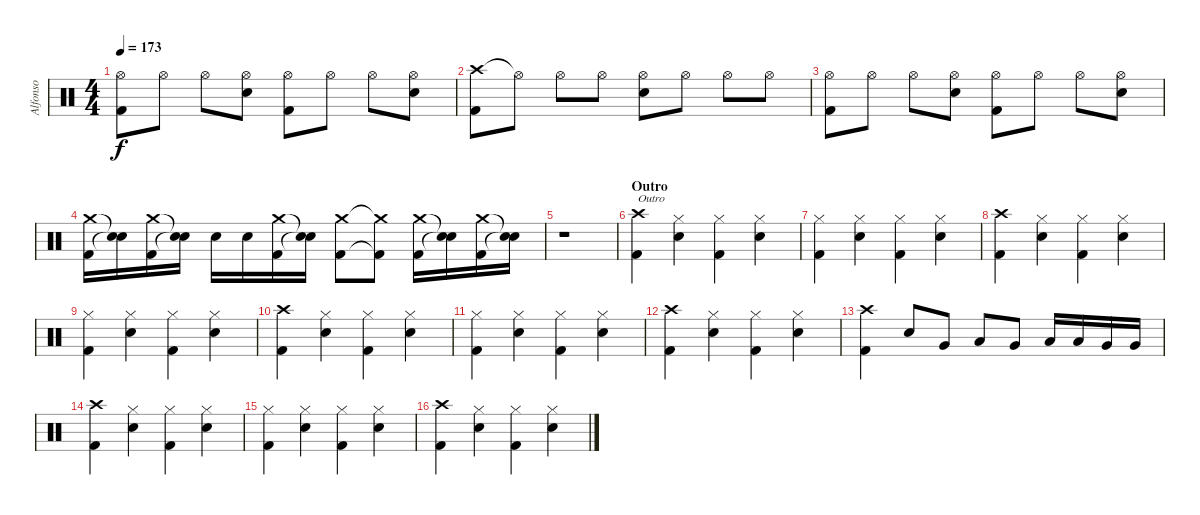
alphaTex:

\track ("Alfonso" "Alfonso") {instrument percussion}
\staff {score}
\articulation defaults
\ts (4 4)
\tempo 173
\clef neutral
\ks c
("Hi-Hat (open)" "Kick (hit) 2").8{dy f} "Hi-Hat (open)".8 "Hi-Hat (open)".8 ("Hi-Hat (open)" "Electric Snare (hit)").8 ("Hi-Hat (open)" "Kick (hit) 2").8 "Hi-Hat (open)".8 "Hi-Hat (open)".8 ("Hi-Hat (open)" "Electric Snare (hit)").8 |
("Crash high (hit)" "Kick (hit) 2").8 "Hi-Hat (open)"{t}.8 "Hi-Hat (open)".8 "Hi-Hat (open)".8 ("Hi-Hat (open)" "Electric Snare (hit)").8 "Hi-Hat (open)".8 "Hi-Hat (open)".8 "Hi-Hat (open)".8 |
("Hi-Hat (open)" "Kick (hit) 2").8 "Hi-Hat (open)".8 "Hi-Hat (open)".8 ("Hi-Hat (open)" "Electric Snare (hit)").8 ("Hi-Hat (open)" "Kick (hit) 2").8 "Hi-Hat (open)".8 "Hi-Hat (open)".8 ("Hi-Hat (open)" "Electric Snare (hit)").8 |
("Crash medium (hit)" "Kick (hit) 2").16 ("Snare (hit)"{t} "Snare (hit)"{t}).16 ("Crash medium (hit)" "Kick (hit) 2").16 ("Snare (hit)"{t} "Snare (hit)"{t}).16 "Electric Snare (hit)".16 "Electric Snare (hit)".16 ("Crash medium (hit)" "Kick (hit) 2").16 ("Snare (hit)"{t} "Snare (hit)"{t}).16 ("Crash medium (hit)" "Kick (hit) 2").8 ("Crash medium (hit)"{t} "Kick (hit) 2"{t}).8 ("Crash medium (hit)" "Kick (hit) 2").16 ("Snare (hit)"{t} "Snare (hit)"{t}).16 ("Crash medium (hit)" "Kick (hit) 2").16 ("Snare (hit)"{t} "Snare (hit)"{t}).16 |
r.1 |
\section ("" "Outro")
("Kick (hit) 2" "Crash high (hit)").4{txt "Outro"} ("Electric Snare (hit)" "Hi-Hat (closed)").4 ("Kick (hit) 2" "Hi-Hat (closed)").4 ("Electric Snare (hit)" "Hi-Hat (closed)").4 |
("Kick (hit) 2" "Hi-Hat (closed)").4 ("Electric Snare (hit)" "Hi-Hat (closed)").4 ("Kick (hit) 2" "Hi-Hat (closed)").4 ("Electric Snare (hit)" "Hi-Hat (closed)").4 |
("Kick (hit) 2" "Crash high (hit)").4 ("Electric Snare (hit)" "Hi-Hat (closed)").4 ("Kick (hit) 2" "Hi-Hat (closed)").4 ("Electric Snare (hit)" "Hi-Hat (closed)").4 |
("Kick (hit) 2" "Hi-Hat (closed)").4 ("Electric Snare (hit)" "Hi-Hat (closed)").4 ("Kick (hit) 2" "Hi-Hat (closed)").4 ("Electric Snare (hit)" "Hi-Hat (closed)").4 |
("Kick (hit) 2" "Crash high (hit)").4 ("Electric Snare (hit)" "Hi-Hat (closed)").4 ("Kick (hit) 2" "Hi-Hat (closed)").4 ("Electric Snare (hit)" "Hi-Hat (closed)").4 |
("Kick (hit) 2" "Hi-Hat (closed)").4 ("Electric Snare (hit)" "Hi-Hat (closed)").4 ("Kick (hit) 2" "Hi-Hat (closed)").4 ("Electric Snare (hit)" "Hi-Hat (closed)").4 |
("Kick (hit) 2" "Crash high (hit)").4 ("Electric Snare (hit)" "Hi-Hat (closed)").4 ("Kick (hit) 2" "Hi-Hat (closed)").4 ("Electric Snare (hit)" "Hi-Hat (closed)").4 |
("Crash high (hit)" "Kick (hit) 2").4 "Electric Snare (hit)".8 "Very Low Tom (hit)".8 "Low Floor Tom (hit)".8 "Very Low Tom (hit)".8 "Low Tom (hit)".16 "Low Tom (hit)".16 "Very Low Tom (hit)".16 "Very Low Tom (hit)".16 |
("Kick (hit) 2" "Crash high (hit)").4 ("Electric Snare (hit)" "Hi-Hat (closed)").4 ("Kick (hit) 2" "Hi-Hat (closed)").4 ("Electric Snare (hit)" "Hi-Hat (closed)").4 |
("Kick (hit) 2" "Hi-Hat (closed)").4 ("Electric Snare (hit)" "Hi-Hat (closed)").4 ("Kick (hit) 2" "Hi-Hat (closed)").4 ("Electric Snare (hit)" "Hi-Hat (closed)").4 |
("Kick (hit) 2" "Crash high (hit)").4 ("Electric Snare (hit)" "Hi-Hat (closed)").4 ("Kick (hit) 2" "Hi-Hat (closed)").4 ("Electric Snare (hit)" "Hi-Hat (closed)").4
